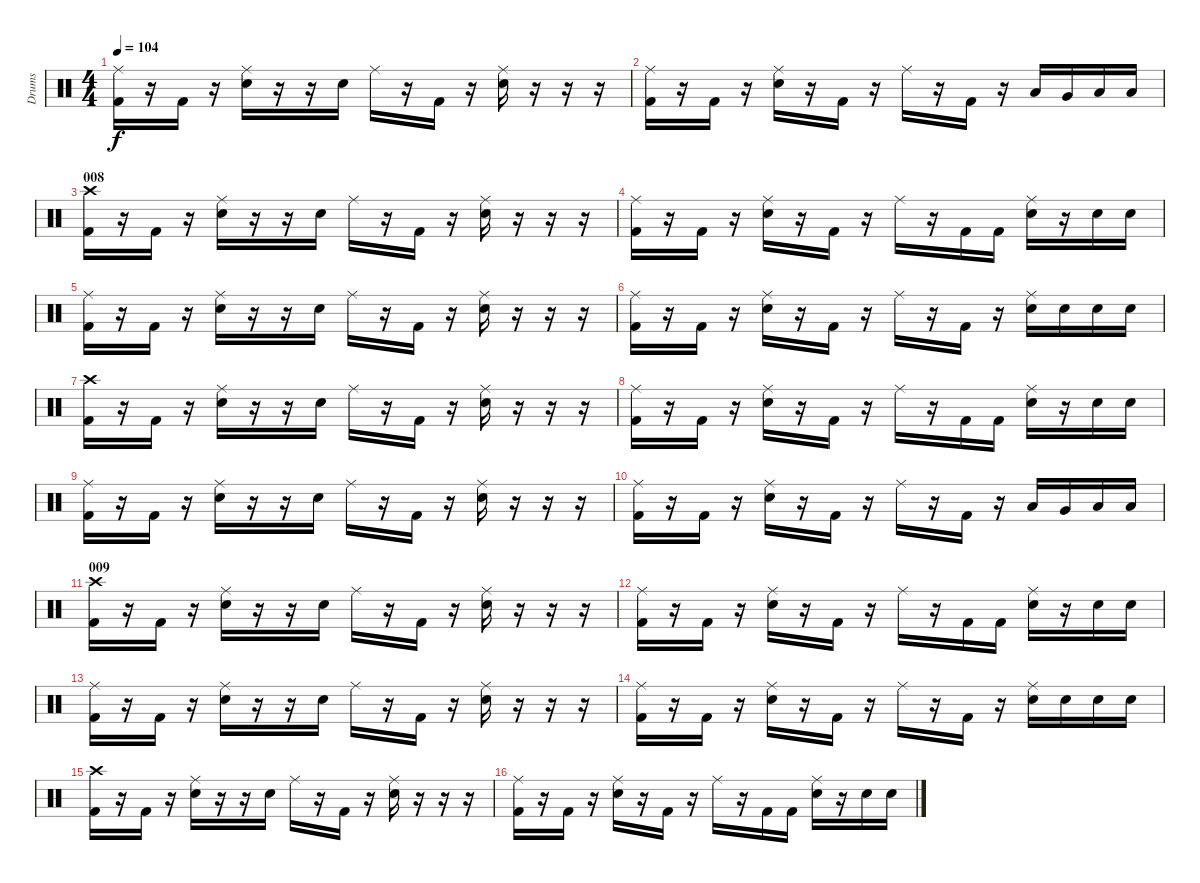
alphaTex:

\track ("Drums" "Drums") {instrument percussion}
\staff {score}
\articulation defaults
\ts (4 4)
\tempo 104
\clef neutral
\ks c
("Kick (hit) 2" "Ride (middle)").16{dy f} r.16 "Kick (hit) 2".16 r.16 ("Electric Snare (hit)" "Ride (middle)").16 r.16 r.16 "Electric Snare (hit)".16 "Ride (middle)".16 r.16 "Kick (hit) 2".16 r.16 ("Electric Snare (hit)" "Ride (middle)").16 r.16 r.16 r.16 |
("Kick (hit) 2" "Ride (middle)").16 r.16 "Kick (hit) 2".16 r.16 ("Electric Snare (hit)" "Ride (middle)").16 r.16 "Kick (hit) 2".16 r.16 "Ride (middle)".16 r.16 "Kick (hit) 2".16 r.16 "Low Tom (hit)".16 "Very Low Tom (hit)".16 "Low Floor Tom (hit)".16 "Low Floor Tom (hit)".16 |
\section ("" "008")
("Kick (hit) 2" "Crash high (hit)").16 r.16 "Kick (hit) 2".16 r.16 ("Electric Snare (hit)" "Ride (middle)").16 r.16 r.16 "Electric Snare (hit)".16 "Ride (middle)".16 r.16 "Kick (hit) 2".16 r.16 ("Electric Snare (hit)" "Ride (middle)").16 r.16 r.16 r.16 |
("Kick (hit) 2" "Ride (middle)").16 r.16 "Kick (hit) 2".16 r.16 ("Electric Snare (hit)" "Ride (middle)").16 r.16 "Kick (hit) 2".16 r.16 "Ride (middle)".16 r.16 "Kick (hit) 2".16 "Kick (hit) 2".16 ("Electric Snare (hit)" "Ride (middle)").16 r.16 "Electric Snare (hit)".16 "Electric Snare (hit)".16 |
("Kick (hit) 2" "Ride (middle)").16 r.16 "Kick (hit) 2".16 r.16 ("Electric Snare (hit)" "Ride (middle)").16 r.16 r.16 "Electric Snare (hit)".16 "Ride (middle)".16 r.16 "Kick (hit) 2".16 r.16 ("Electric Snare (hit)" "Ride (middle)").16 r.16 r.16 r.16 |
("Kick (hit) 2" "Ride (middle)").16 r.16 "Kick (hit) 2".16 r.16 ("Electric Snare (hit)" "Ride (middle)").16 r.16 "Kick (hit) 2".16 r.16 "Ride (middle)".16 r.16 "Kick (hit) 2".16 r.16 ("Electric Snare (hit)" "Ride (middle)").16 "Electric Snare (hit)".16 "Electric Snare (hit)".16 "Electric Snare (hit)".16 |
("Kick (hit) 2" "Crash high (hit)").16 r.16 "Kick (hit) 2".16 r.16 ("Electric Snare (hit)" "Ride (middle)").16 r.16 r.16 "Electric Snare (hit)".16 "Ride (middle)".16 r.16 "Kick (hit) 2".16 r.16 ("Electric Snare (hit)" "Ride (middle)").16 r.16 r.16 r.16 |
("Kick (hit) 2" "Ride (middle)").16 r.16 "Kick (hit) 2".16 r.16 ("Electric Snare (hit)" "Ride (middle)").16 r.16 "Kick (hit) 2".16 r.16 "Ride (middle)".16 r.16 "Kick (hit) 2".16 "Kick (hit) 2".16 ("Electric Snare (hit)" "Ride (middle)").16 r.16 "Electric Snare (hit)".16 "Electric Snare (hit)".16 |
("Kick (hit) 2" "Ride (middle)").16 r.16 "Kick (hit) 2".16 r.16 ("Electric Snare (hit)" "Ride (middle)").16 r.16 r.16 "Electric Snare (hit)".16 "Ride (middle)".16 r.16 "Kick (hit) 2".16 r.16 ("Electric Snare (hit)" "Ride (middle)").16 r.16 r.16 r.16 |
("Kick (hit) 2" "Ride (middle)").16 r.16 "Kick (hit) 2".16 r.16 ("Electric Snare (hit)" "Ride (middle)").16 r.16 "Kick (hit) 2".16 r.16 "Ride (middle)".16 r.16 "Kick (hit) 2".16 r.16 "Low Tom (hit)".16 "Very Low Tom (hit)".16 "Low Floor Tom (hit)".16 "Low Floor Tom (hit)".16 |
\section ("" "009")
("Kick (hit) 2" "Crash high (hit)").16 r.16 "Kick (hit) 2".16 r.16 ("Electric Snare (hit)" "Ride (middle)").16 r.16 r.16 "Electric Snare (hit)".16 "Ride (middle)".16 r.16 "Kick (hit) 2".16 r.16 ("Electric Snare (hit)" "Ride (middle)").16 r.16 r.16 r.16 |
("Kick (hit) 2" "Ride (middle)").16 r.16 "Kick (hit) 2".16 r.16 ("Electric Snare (hit)" "Ride (middle)").16 r.16 "Kick (hit) 2".16 r.16 "Ride (middle)".16 r.16 "Kick (hit) 2".16 "Kick (hit) 2".16 ("Electric Snare (hit)" "Ride (middle)").16 r.16 "Electric Snare (hit)".16 "Electric Snare (hit)".16 |
("Kick (hit) 2" "Ride (middle)").16 r.16 "Kick (hit) 2".16 r.16 ("Electric Snare (hit)" "Ride (middle)").16 r.16 r.16 "Electric Snare (hit)".16 "Ride (middle)".16 r.16 "Kick (hit) 2".16 r.16 ("Electric Snare (hit)" "Ride (middle)").16 r.16 r.16 r.16 |
("Kick (hit) 2" "Ride (middle)").16 r.16 "Kick (hit) 2".16 r.16 ("Electric Snare (hit)" "Ride (middle)").16 r.16 "Kick (hit) 2".16 r.16 "Ride (middle)".16 r.16 "Kick (hit) 2".16 r.16 ("Electric Snare (hit)" "Ride (middle)").16 "Electric Snare (hit)".16 "Electric Snare (hit)".16 "Electric Snare (hit)".16 |
("Kick (hit) 2" "Crash high (hit)").16 r.16 "Kick (hit) 2".16 r.16 ("Electric Snare (hit)" "Ride (middle)").16 r.16 r.16 "Electric Snare (hit)".16 "Ride (middle)".16 r.16 "Kick (hit) 2".16 r.16 ("Electric Snare (hit)" "Ride (middle)").16 r.16 r.16 r.16 |
("Kick (hit) 2" "Ride (middle)").16 r.16 "Kick (hit) 2".16 r.16 ("Electric Snare (hit)" "Ride (middle)").16 r.16 "Kick (hit) 2".16 r.16 "Ride (middle)".16 r.16 "Kick (hit) 2".16 "Kick (hit) 2".16 ("Electric Snare (hit)" "Ride (middle)").16 r.16 "Electric Snare (hit)".16 "Electric Snare (hit)".16
